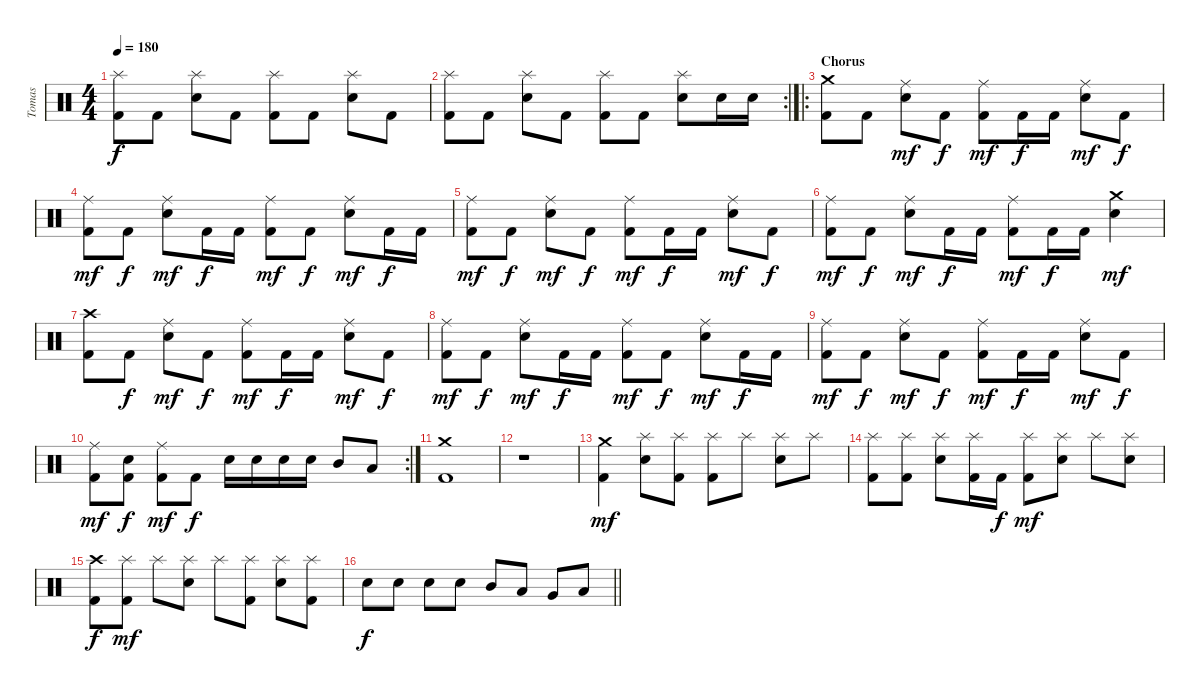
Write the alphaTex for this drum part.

\track ("Tomas" "Tomas") {instrument percussion}
\staff {score}
\articulation defaults
\ts (4 4)
\tempo 180
\clef neutral
\ks c
("Kick (hit) 2" "Splash (hit)").8{dy f} "Kick (hit) 2".8 ("Electric Snare (hit)" "Splash (hit)").8 "Kick (hit) 2".8 ("Kick (hit) 2" "Splash (hit)").8 "Kick (hit) 2".8 ("Electric Snare (hit)" "Splash (hit)").8 "Kick (hit) 2".8 |
\rc 2
("Kick (hit) 2" "Splash (hit)").8 "Kick (hit) 2".8 ("Electric Snare (hit)" "Splash (hit)").8 "Kick (hit) 2".8 ("Kick (hit) 2" "Splash (hit)").8 "Kick (hit) 2".8 ("Electric Snare (hit)" "Splash (hit)").8 "Electric Snare (hit)".16 "Electric Snare (hit)".16 |
\ro
\section ("" "Chorus")
("Kick (hit) 2" "Crash medium (hit)").8 "Kick (hit) 2".8 ("Electric Snare (hit)" "Ride (middle)").8{dy mf} "Kick (hit) 2".8{dy f} ("Kick (hit) 2" "Ride (middle)").8{dy mf} "Kick (hit) 2".16{dy f} "Kick (hit) 2".16 ("Electric Snare (hit)" "Ride (middle)").8{dy mf} "Kick (hit) 2".8{dy f} |
("Kick (hit) 2" "Ride (middle)").8{dy mf} "Kick (hit) 2".8{dy f} ("Electric Snare (hit)" "Ride (middle)").8{dy mf} "Kick (hit) 2".16{dy f} "Kick (hit) 2".16 ("Kick (hit) 2" "Ride (middle)").8{dy mf} "Kick (hit) 2".8{dy f} ("Electric Snare (hit)" "Ride (middle)").8{dy mf} "Kick (hit) 2".16{dy f} "Kick (hit) 2".16 |
("Kick (hit) 2" "Ride (middle)").8{dy mf} "Kick (hit) 2".8{dy f} ("Electric Snare (hit)" "Ride (middle)").8{dy mf} "Kick (hit) 2".8{dy f} ("Kick (hit) 2" "Ride (middle)").8{dy mf} "Kick (hit) 2".16{dy f} "Kick (hit) 2".16 ("Electric Snare (hit)" "Ride (middle)").8{dy mf} "Kick (hit) 2".8{dy f} |
("Kick (hit) 2" "Ride (middle)").8{dy mf} "Kick (hit) 2".8{dy f} ("Electric Snare (hit)" "Ride (middle)").8{dy mf} "Kick (hit) 2".16{dy f} "Kick (hit) 2".16 ("Kick (hit) 2" "Ride (middle)").8{dy mf} "Kick (hit) 2".16{dy f} "Kick (hit) 2".16 ("Electric Snare (hit)" "Crash medium (hit)").4{dy mf} |
("Kick (hit) 2" "Crash high (hit)").8 "Kick (hit) 2".8{dy f} ("Electric Snare (hit)" "Ride (middle)").8{dy mf} "Kick (hit) 2".8{dy f} ("Kick (hit) 2" "Ride (middle)").8{dy mf} "Kick (hit) 2".16{dy f} "Kick (hit) 2".16 ("Electric Snare (hit)" "Ride (middle)").8{dy mf} "Kick (hit) 2".8{dy f} |
("Kick (hit) 2" "Ride (middle)").8{dy mf} "Kick (hit) 2".8{dy f} ("Electric Snare (hit)" "Ride (middle)").8{dy mf} "Kick (hit) 2".16{dy f} "Kick (hit) 2".16 ("Kick (hit) 2" "Ride (middle)").8{dy mf} "Kick (hit) 2".8{dy f} ("Electric Snare (hit)" "Ride (middle)").8{dy mf} "Kick (hit) 2".16{dy f} "Kick (hit) 2".16 |
("Kick (hit) 2" "Ride (middle)").8{dy mf} "Kick (hit) 2".8{dy f} ("Electric Snare (hit)" "Ride (middle)").8{dy mf} "Kick (hit) 2".8{dy f} ("Kick (hit) 2" "Ride (middle)").8{dy mf} "Kick (hit) 2".16{dy f} "Kick (hit) 2".16 ("Electric Snare (hit)" "Ride (middle)").8{dy mf} "Kick (hit) 2".8{dy f} |
\rc 2
("Kick (hit) 2" "Ride (middle)").8{dy mf} ("Kick (hit) 2" "Electric Snare (hit)").8{dy f} ("Kick (hit) 2" "Ride (middle)").8{dy mf} "Kick (hit) 2".8{dy f} "Electric Snare (hit)".16 "Electric Snare (hit)".16 "Electric Snare (hit)".16 "Electric Snare (hit)".16 "Mid Tom (hit)".8 "Low Tom (hit)".8 |
("Kick (hit) 2" "Crash medium (hit)").1 |
r.1 |
("Kick (hit) 2" "Crash medium (hit)").4{dy mf} ("Electric Snare (hit)" "Splash (hit)").8 ("Kick (hit) 2" "Splash (hit)").8 ("Kick (hit) 2" "Splash (hit)").8 "Splash (hit)".8 ("Electric Snare (hit)" "Splash (hit)").8 "Splash (hit)".8 |
("Kick (hit) 2" "Splash (hit)").8 ("Kick (hit) 2" "Splash (hit)").8 ("Electric Snare (hit)" "Splash (hit)").8 ("Kick (hit) 2" "Splash (hit)").16 "Kick (hit) 2".16{dy f} ("Kick (hit) 2" "Splash (hit)").8{dy mf} ("Electric Snare (hit)" "Splash (hit)").8 "Splash (hit)".8 ("Electric Snare (hit)" "Splash (hit)").8 |
("Kick (hit) 2" "Crash high (hit)").8{dy f} ("Kick (hit) 2" "Splash (hit)").8{dy mf} "Splash (hit)".8 ("Electric Snare (hit)" "Splash (hit)").8 "Splash (hit)".8 ("Kick (hit) 2" "Splash (hit)").8 ("Electric Snare (hit)" "Splash (hit)").8 ("Kick (hit) 2" "Splash (hit)").8 |
\barLineRight lightlight "Electric Snare (hit)".8{dy f} "Electric Snare (hit)".8 "Electric Snare (hit)".8 "Electric Snare (hit)".8 "Mid Tom (hit)".8 "Low Tom (hit)".8 "Very Low Tom (hit)".8 "Low Floor Tom (hit)".8
